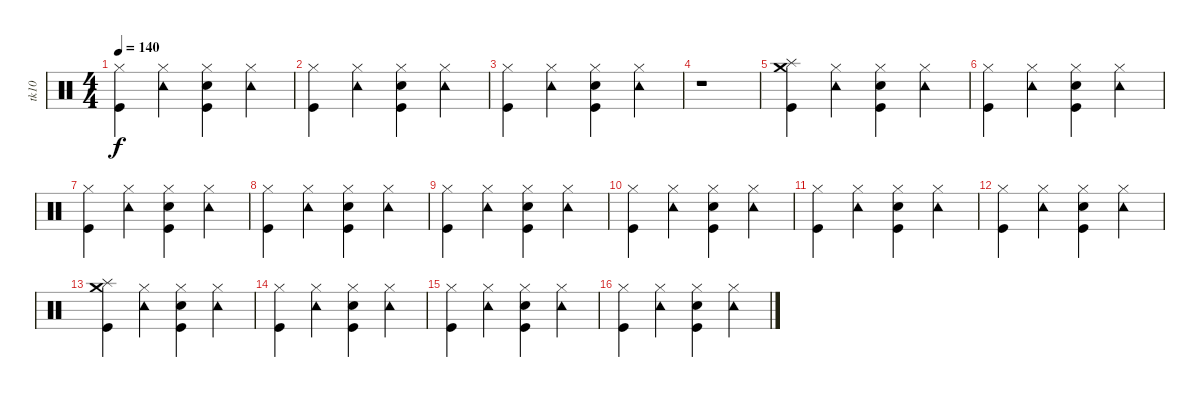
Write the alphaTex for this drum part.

\track ("tk10" "tk10") {instrument percussion}
\staff {score}
\articulation defaults
\ts (4 4)
\tempo 140
\clef neutral
\ks c
("Hi-Hat (closed)" "Kick (hit)").4{dy f} ("Tambourine (hit)" "Hi-Hat (closed)").4 ("Electric Snare (hit)" "Hi-Hat (closed)" "Kick (hit)").4 ("Hi-Hat (closed)" "Tambourine (hit)").4 |
("Hi-Hat (closed)" "Kick (hit)").4 ("Tambourine (hit)" "Hi-Hat (closed)").4 ("Electric Snare (hit)" "Hi-Hat (closed)" "Kick (hit)").4 ("Hi-Hat (closed)" "Tambourine (hit)").4 |
("Hi-Hat (closed)" "Kick (hit)").4 ("Tambourine (hit)" "Hi-Hat (closed)").4 ("Electric Snare (hit)" "Hi-Hat (closed)" "Kick (hit)").4 ("Hi-Hat (closed)" "Tambourine (hit)").4 |
r.1 |
("Splash (hit)" "Kick (hit)" "Crash medium (hit)").4 ("Hi-Hat (closed)" "Tambourine (hit)").4 ("Electric Snare (hit)" "Hi-Hat (closed)" "Kick (hit)").4 ("Hi-Hat (closed)" "Tambourine (hit)").4 |
("Hi-Hat (closed)" "Kick (hit)").4 ("Tambourine (hit)" "Hi-Hat (closed)").4 ("Electric Snare (hit)" "Hi-Hat (closed)" "Kick (hit)").4 ("Hi-Hat (closed)" "Tambourine (hit)").4 |
("Hi-Hat (closed)" "Kick (hit)").4 ("Tambourine (hit)" "Hi-Hat (closed)").4 ("Electric Snare (hit)" "Hi-Hat (closed)" "Kick (hit)").4 ("Hi-Hat (closed)" "Tambourine (hit)").4 |
("Hi-Hat (closed)" "Kick (hit)").4 ("Tambourine (hit)" "Hi-Hat (closed)").4 ("Electric Snare (hit)" "Hi-Hat (closed)" "Kick (hit)").4 ("Hi-Hat (closed)" "Tambourine (hit)").4 |
("Hi-Hat (closed)" "Kick (hit)").4 ("Tambourine (hit)" "Hi-Hat (closed)").4 ("Electric Snare (hit)" "Hi-Hat (closed)" "Kick (hit)").4 ("Hi-Hat (closed)" "Tambourine (hit)").4 |
("Hi-Hat (closed)" "Kick (hit)").4 ("Tambourine (hit)" "Hi-Hat (closed)").4 ("Electric Snare (hit)" "Hi-Hat (closed)" "Kick (hit)").4 ("Hi-Hat (closed)" "Tambourine (hit)").4 |
("Hi-Hat (closed)" "Kick (hit)").4 ("Tambourine (hit)" "Hi-Hat (closed)").4 ("Electric Snare (hit)" "Hi-Hat (closed)" "Kick (hit)").4 ("Hi-Hat (closed)" "Tambourine (hit)").4 |
("Hi-Hat (closed)" "Kick (hit)").4 ("Tambourine (hit)" "Hi-Hat (closed)").4 ("Electric Snare (hit)" "Hi-Hat (closed)" "Kick (hit)").4 ("Hi-Hat (closed)" "Tambourine (hit)").4 |
("Splash (hit)" "Kick (hit)" "Crash medium (hit)").4 ("Hi-Hat (closed)" "Tambourine (hit)").4 ("Electric Snare (hit)" "Hi-Hat (closed)" "Kick (hit)").4 ("Hi-Hat (closed)" "Tambourine (hit)").4 |
("Hi-Hat (closed)" "Kick (hit)").4 ("Tambourine (hit)" "Hi-Hat (closed)").4 ("Electric Snare (hit)" "Hi-Hat (closed)" "Kick (hit)").4 ("Hi-Hat (closed)" "Tambourine (hit)").4 |
("Hi-Hat (closed)" "Kick (hit)").4 ("Tambourine (hit)" "Hi-Hat (closed)").4 ("Electric Snare (hit)" "Hi-Hat (closed)" "Kick (hit)").4 ("Hi-Hat (closed)" "Tambourine (hit)").4 |
("Hi-Hat (closed)" "Kick (hit)").4 ("Tambourine (hit)" "Hi-Hat (closed)").4 ("Electric Snare (hit)" "Hi-Hat (closed)" "Kick (hit)").4 ("Hi-Hat (closed)" "Tambourine (hit)").4
